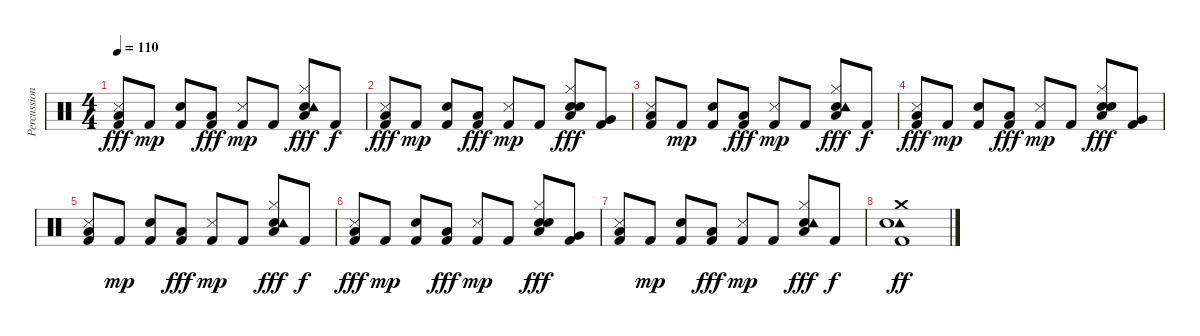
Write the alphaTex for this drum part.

\track ("Percussion" "Percussion") {instrument percussion}
\staff {score}
\articulation defaults
\ts (4 4)
\tempo 110
\clef neutral
\ks c
("Snare (side stick) 3" "Low Floor Tom (hit)" "Kick (hit) 2").8{dy fff} "Kick (hit) 2".8{dy mp} ("Electric Snare (hit)" "Kick (hit) 2").8 ("Low Floor Tom (hit)" "Kick (hit) 2").8{dy fff} ("Snare (side stick) 3" "Kick (hit) 2").8{dy mp} "Kick (hit) 2".8 ("Electric Snare (hit)" "Hi-Hat (closed)" "Low Floor Tom (hit)" "Tambourine (hit)").8{dy fff} "Kick (hit) 2".8{dy f} |
("Snare (side stick) 3" "Low Floor Tom (hit)" "Kick (hit) 2").8{dy fff} "Kick (hit) 2".8{dy mp} ("Electric Snare (hit)" "Kick (hit) 2").8 ("Low Floor Tom (hit)" "Kick (hit) 2").8{dy fff} ("Snare (side stick) 3" "Kick (hit) 2").8{dy mp} "Kick (hit) 2".8 ("Electric Snare (hit)" "Hi-Hat (closed)" "Low Floor Tom (hit)" "Snare (hit) 2").8{dy fff} ("Very Low Tom (hit)" "Kick (hit) 2").8 |
("Snare (side stick) 3" "Low Floor Tom (hit)" "Kick (hit) 2").8 "Kick (hit) 2".8{dy mp} ("Electric Snare (hit)" "Kick (hit) 2").8 ("Low Floor Tom (hit)" "Kick (hit) 2").8{dy fff} ("Snare (side stick) 3" "Kick (hit) 2").8{dy mp} "Kick (hit) 2".8 ("Electric Snare (hit)" "Hi-Hat (closed)" "Low Floor Tom (hit)" "Tambourine (hit)").8{dy fff} "Kick (hit) 2".8{dy f} |
("Snare (side stick) 3" "Low Floor Tom (hit)" "Kick (hit) 2").8{dy fff} "Kick (hit) 2".8{dy mp} ("Electric Snare (hit)" "Kick (hit) 2").8 ("Low Floor Tom (hit)" "Kick (hit) 2").8{dy fff} ("Snare (side stick) 3" "Kick (hit) 2").8{dy mp} "Kick (hit) 2".8 ("Electric Snare (hit)" "Hi-Hat (closed)" "Low Floor Tom (hit)" "Snare (hit) 2").8{dy fff} ("Very Low Tom (hit)" "Kick (hit) 2").8 |
("Snare (side stick) 3" "Low Floor Tom (hit)" "Kick (hit) 2").8 "Kick (hit) 2".8{dy mp} ("Electric Snare (hit)" "Kick (hit) 2").8 ("Low Floor Tom (hit)" "Kick (hit) 2").8{dy fff} ("Snare (side stick) 3" "Kick (hit) 2").8{dy mp} "Kick (hit) 2".8 ("Electric Snare (hit)" "Hi-Hat (closed)" "Low Floor Tom (hit)" "Tambourine (hit)").8{dy fff} "Kick (hit) 2".8{dy f} |
("Snare (side stick) 3" "Low Floor Tom (hit)" "Kick (hit) 2").8{dy fff} "Kick (hit) 2".8{dy mp} ("Electric Snare (hit)" "Kick (hit) 2").8 ("Low Floor Tom (hit)" "Kick (hit) 2").8{dy fff} ("Snare (side stick) 3" "Kick (hit) 2").8{dy mp} "Kick (hit) 2".8 ("Electric Snare (hit)" "Hi-Hat (closed)" "Low Floor Tom (hit)" "Snare (hit) 2").8{dy fff} ("Very Low Tom (hit)" "Kick (hit) 2").8 |
("Snare (side stick) 3" "Low Floor Tom (hit)" "Kick (hit) 2").8 "Kick (hit) 2".8{dy mp} ("Electric Snare (hit)" "Kick (hit) 2").8 ("Low Floor Tom (hit)" "Kick (hit) 2").8{dy fff} ("Snare (side stick) 3" "Kick (hit) 2").8{dy mp} "Kick (hit) 2".8 ("Electric Snare (hit)" "Hi-Hat (closed)" "Low Floor Tom (hit)" "Tambourine (hit)").8{dy fff} "Kick (hit) 2".8{dy f} |
("Crash medium (hit)" "Tambourine (hit)" "Snare (hit) 2" "Kick (hit) 2").1{dy ff}
